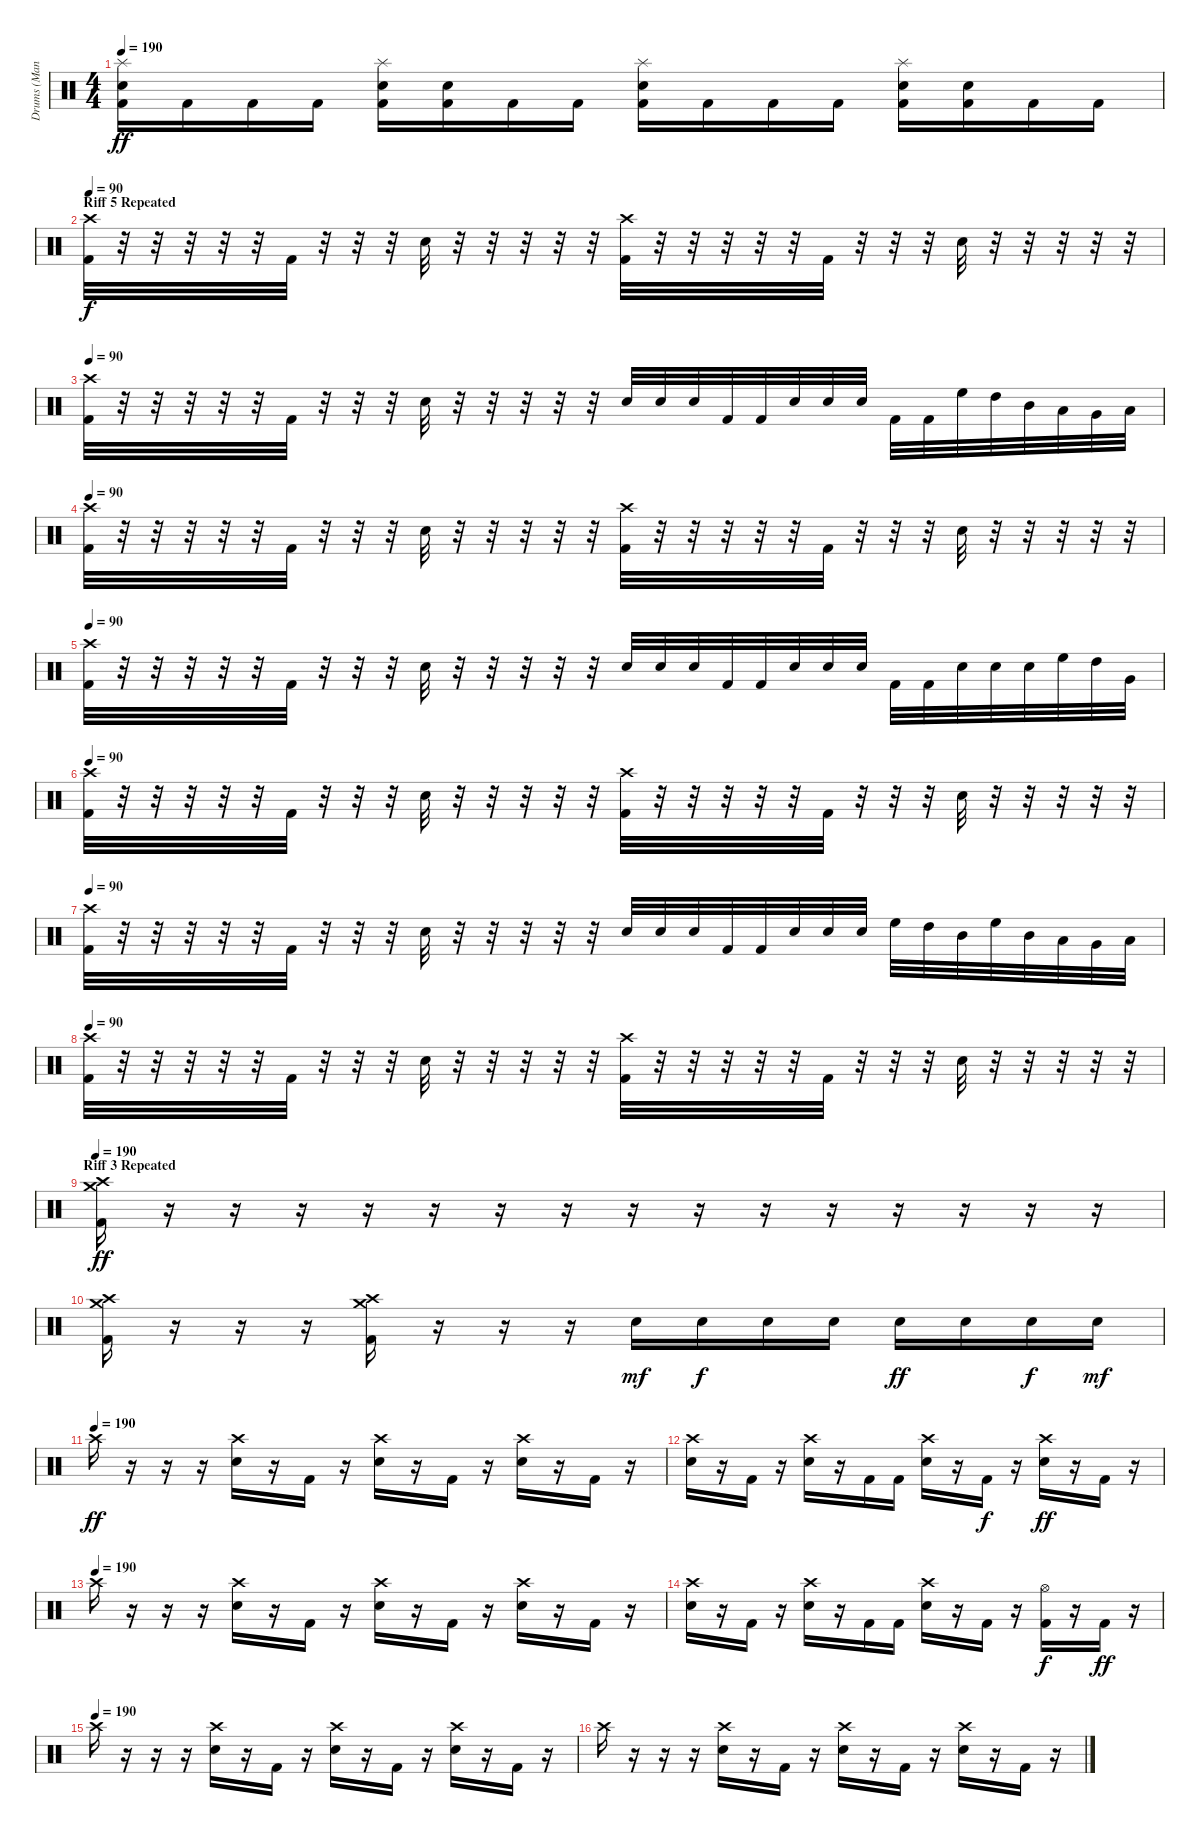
\track ("Drums (Mancino)" "Drums (Man") {instrument percussion}
\staff {score}
\articulation defaults
\ts (4 4)
\tempo 190
\clef neutral
\ks c
("Splash (hit)" "Electric Snare (hit)" "Kick (hit) 2").16{dy ff} "Kick (hit) 2".16 "Kick (hit) 2".16 "Kick (hit) 2".16 ("Splash (hit)" "Electric Snare (hit)" "Kick (hit) 2").16 ("Electric Snare (hit)" "Kick (hit) 2").16 "Kick (hit) 2".16 "Kick (hit) 2".16 ("Splash (hit)" "Electric Snare (hit)" "Kick (hit) 2").16 "Kick (hit) 2".16 "Kick (hit) 2".16 "Kick (hit) 2".16 ("Splash (hit)" "Electric Snare (hit)" "Kick (hit) 2").16 ("Electric Snare (hit)" "Kick (hit) 2").16 "Kick (hit) 2".16 "Kick (hit) 2".16 |
\section ("" "Riff 5 Repeated")
\tempo 90
("Crash high (hit)" "Kick (hit) 2").32{dy f} r.32 r.32 r.32 r.32 r.32 "Kick (hit) 2".32 r.32 r.32 r.32 "Electric Snare (hit)".32 r.32 r.32 r.32 r.32 r.32 ("Crash high (hit)" "Kick (hit) 2").32 r.32 r.32 r.32 r.32 r.32 "Kick (hit) 2".32 r.32 r.32 r.32 "Electric Snare (hit)".32 r.32 r.32 r.32 r.32 r.32 |
\tempo 90
("Crash high (hit)" "Kick (hit) 2").32 r.32 r.32 r.32 r.32 r.32 "Kick (hit) 2".32 r.32 r.32 r.32 "Electric Snare (hit)".32 r.32 r.32 r.32 r.32 r.32 "Electric Snare (hit)".32 "Electric Snare (hit)".32 "Electric Snare (hit)".32 "Kick (hit) 2".32 "Kick (hit) 2".32 "Electric Snare (hit)".32 "Electric Snare (hit)".32 "Electric Snare (hit)".32 "Kick (hit) 2".32 "Kick (hit) 2".32 "High Floor Tom (hit)".32 "High Tom (hit)".32 "Mid Tom (hit)".32 "Low Tom (hit)".32 "Very Low Tom (hit)".32 "Low Floor Tom (hit)".32 |
\tempo 90
("Crash high (hit)" "Kick (hit) 2").32 r.32 r.32 r.32 r.32 r.32 "Kick (hit) 2".32 r.32 r.32 r.32 "Electric Snare (hit)".32 r.32 r.32 r.32 r.32 r.32 ("Crash high (hit)" "Kick (hit) 2").32 r.32 r.32 r.32 r.32 r.32 "Kick (hit) 2".32 r.32 r.32 r.32 "Electric Snare (hit)".32 r.32 r.32 r.32 r.32 r.32 |
\tempo 90
("Crash high (hit)" "Kick (hit) 2").32 r.32 r.32 r.32 r.32 r.32 "Kick (hit) 2".32 r.32 r.32 r.32 "Electric Snare (hit)".32 r.32 r.32 r.32 r.32 r.32 "Electric Snare (hit)".32 "Electric Snare (hit)".32 "Electric Snare (hit)".32 "Kick (hit) 2".32 "Kick (hit) 2".32 "Electric Snare (hit)".32 "Electric Snare (hit)".32 "Electric Snare (hit)".32 "Kick (hit) 2".32 "Kick (hit) 2".32 "Electric Snare (hit)".32 "Electric Snare (hit)".32 "Electric Snare (hit)".32 "High Floor Tom (hit)".32 "High Tom (hit)".32 "Very Low Tom (hit)".32 |
\tempo 90
("Crash high (hit)" "Kick (hit) 2").32 r.32 r.32 r.32 r.32 r.32 "Kick (hit) 2".32 r.32 r.32 r.32 "Electric Snare (hit)".32 r.32 r.32 r.32 r.32 r.32 ("Crash high (hit)" "Kick (hit) 2").32 r.32 r.32 r.32 r.32 r.32 "Kick (hit) 2".32 r.32 r.32 r.32 "Electric Snare (hit)".32 r.32 r.32 r.32 r.32 r.32 |
\tempo 90
("Crash high (hit)" "Kick (hit) 2").32 r.32 r.32 r.32 r.32 r.32 "Kick (hit) 2".32 r.32 r.32 r.32 "Electric Snare (hit)".32 r.32 r.32 r.32 r.32 r.32 "Electric Snare (hit)".32 "Electric Snare (hit)".32 "Electric Snare (hit)".32 "Kick (hit) 2".32 "Kick (hit) 2".32 "Electric Snare (hit)".32 "Electric Snare (hit)".32 "Electric Snare (hit)".32 "High Floor Tom (hit)".32 "High Tom (hit)".32 "Mid Tom (hit)".32 "High Floor Tom (hit)".32 "Mid Tom (hit)".32 "Low Tom (hit)".32 "Very Low Tom (hit)".32 "Low Floor Tom (hit)".32 |
\tempo 90
("Crash high (hit)" "Kick (hit) 2").32 r.32 r.32 r.32 r.32 r.32 "Kick (hit) 2".32 r.32 r.32 r.32 "Electric Snare (hit)".32 r.32 r.32 r.32 r.32 r.32 ("Crash high (hit)" "Kick (hit) 2").32 r.32 r.32 r.32 r.32 r.32 "Kick (hit) 2".32 r.32 r.32 r.32 "Electric Snare (hit)".32 r.32 r.32 r.32 r.32 r.32 |
\section ("" "Riff 3 Repeated")
\tempo 190
("Crash high (hit)" "Crash medium (hit)" "Kick (hit) 2").16{dy ff} r.16 r.16 r.16 r.16 r.16 r.16 r.16 r.16 r.16 r.16 r.16 r.16 r.16 r.16 r.16 |
("Crash high (hit)" "Crash medium (hit)" "Kick (hit) 2").16 r.16 r.16 r.16 ("Crash high (hit)" "Crash medium (hit)" "Kick (hit) 2").16 r.16 r.16 r.16 "Electric Snare (hit)".16{dy mf} "Electric Snare (hit)".16{dy f} "Electric Snare (hit)".16 "Electric Snare (hit)".16 "Electric Snare (hit)".16{dy ff} "Electric Snare (hit)".16 "Electric Snare (hit)".16{dy f} "Electric Snare (hit)".16{dy mf} |
\tempo (190)
"Crash high (hit)".16{dy ff} r.16 r.16 r.16 ("Crash high (hit)" "Electric Snare (hit)").16 r.16 "Kick (hit) 2".16 r.16 ("Crash high (hit)" "Electric Snare (hit)").16 r.16 "Kick (hit) 2".16 r.16 ("Crash high (hit)" "Electric Snare (hit)").16 r.16 "Kick (hit) 2".16 r.16 |
("Crash high (hit)" "Electric Snare (hit)").16 r.16 "Kick (hit) 2".16 r.16 ("Crash high (hit)" "Electric Snare (hit)").16 r.16 "Kick (hit) 2".16 "Kick (hit) 2".16 ("Crash high (hit)" "Electric Snare (hit)").16 r.16 "Kick (hit) 2".16{dy f} r.16 ("Crash high (hit)" "Electric Snare (hit)").16{dy ff} r.16 "Kick (hit) 2".16 r.16 |
\tempo (190)
"Crash high (hit)".16 r.16 r.16 r.16 ("Crash high (hit)" "Electric Snare (hit)").16 r.16 "Kick (hit) 2".16 r.16 ("Crash high (hit)" "Electric Snare (hit)").16 r.16 "Kick (hit) 2".16 r.16 ("Crash high (hit)" "Electric Snare (hit)").16 r.16 "Kick (hit) 2".16 r.16 |
("Crash high (hit)" "Electric Snare (hit)").16 r.16 "Kick (hit) 2".16 r.16 ("Crash high (hit)" "Electric Snare (hit)").16 r.16 "Kick (hit) 2".16 "Kick (hit) 2".16 ("Crash high (hit)" "Electric Snare (hit)").16 r.16 "Kick (hit) 2".16 r.16 ("Hi-Hat (open)" "Kick (hit) 2").16{dy f} r.16 "Kick (hit) 2".16{dy ff} r.16 |
\tempo (190)
"Crash high (hit)".16 r.16 r.16 r.16 ("Crash high (hit)" "Electric Snare (hit)").16 r.16 "Kick (hit) 2".16 r.16 ("Crash high (hit)" "Electric Snare (hit)").16 r.16 "Kick (hit) 2".16 r.16 ("Crash high (hit)" "Electric Snare (hit)").16 r.16 "Kick (hit) 2".16 r.16 |
"Crash high (hit)".16 r.16 r.16 r.16 ("Crash high (hit)" "Electric Snare (hit)").16 r.16 "Kick (hit) 2".16 r.16 ("Crash high (hit)" "Electric Snare (hit)").16 r.16 "Kick (hit) 2".16 r.16 ("Crash high (hit)" "Electric Snare (hit)").16 r.16 "Kick (hit) 2".16 r.16
